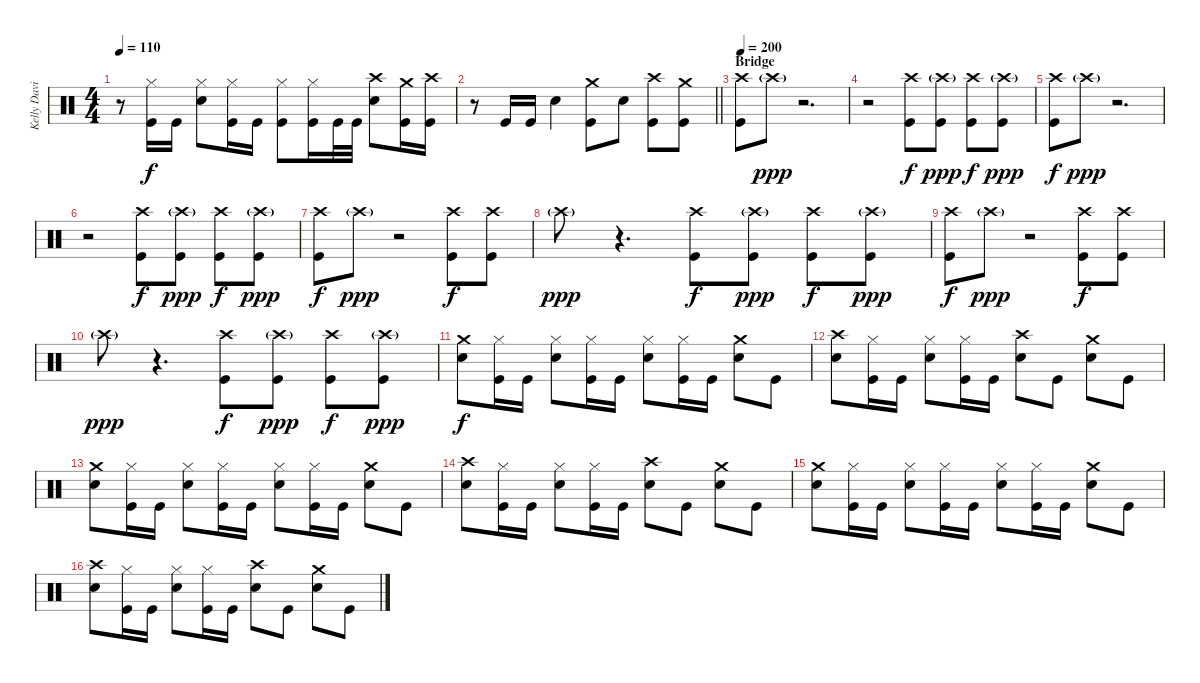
\track ("Kelly David Smith" "Kelly Davi") {instrument percussion}
\staff {score}
\articulation defaults
\ts (4 4)
\tempo 110
\clef neutral
\ks c
r.8{dy f} ("Hi-Hat (closed)" "Kick (hit)").16 "Kick (hit)".16 ("Hi-Hat (closed)" "Snare (hit) 2").8 ("Hi-Hat (closed)" "Kick (hit)").16 "Kick (hit)".16 ("Hi-Hat (closed)" "Kick (hit)").8 ("Hi-Hat (closed)" "Kick (hit)").16 "Kick (hit)".32 "Kick (hit)".32 ("Crash high (hit)" "Snare (hit) 2").8 ("Crash medium (hit)" "Kick (hit)").16 ("Crash high (hit)" "Kick (hit)").16 |
\barLineRight lightlight
r.8 "Kick (hit)".16 "Kick (hit)".16 "Snare (hit) 2".4 ("Crash medium (hit)" "Kick (hit)").8 "Snare (hit) 2".8 ("Crash high (hit)" "Kick (hit)").8 ("Crash medium (hit)" "Kick (hit)").8 |
\section ("" "Bridge")
\tempo 200
("Crash high (hit)" "Kick (hit)").8 "Crash high (hit)"{g}.8{dy ppp} r.2{d} |
r.2 ("Crash high (hit)" "Kick (hit)").8{dy f} ("Crash high (hit)"{g} "Kick (hit)").8{dy ppp} ("Crash high (hit)" "Kick (hit)").8{dy f} ("Crash high (hit)"{g} "Kick (hit)").8{dy ppp} |
("Crash high (hit)" "Kick (hit)").8{dy f} "Crash high (hit)"{g}.8{dy ppp} r.2{d} |
r.2 ("Crash high (hit)" "Kick (hit)").8{dy f} ("Crash high (hit)"{g} "Kick (hit)").8{dy ppp} ("Crash high (hit)" "Kick (hit)").8{dy f} ("Crash high (hit)"{g} "Kick (hit)").8{dy ppp} |
("Crash high (hit)" "Kick (hit)").8{dy f} "Crash high (hit)"{g}.8{dy ppp} r.2 ("Crash high (hit)" "Kick (hit)").8{dy f} ("Crash high (hit)" "Kick (hit)").8 |
"Crash high (hit)"{g}.8{dy ppp} r.4{d} ("Crash high (hit)" "Kick (hit)").8{dy f} ("Crash high (hit)"{g} "Kick (hit)").8{dy ppp} ("Crash high (hit)" "Kick (hit)").8{dy f} ("Crash high (hit)"{g} "Kick (hit)").8{dy ppp} |
("Crash high (hit)" "Kick (hit)").8{dy f} "Crash high (hit)"{g}.8{dy ppp} r.2 ("Crash high (hit)" "Kick (hit)").8{dy f} ("Crash high (hit)" "Kick (hit)").8 |
"Crash high (hit)"{g}.8{dy ppp} r.4{d} ("Crash high (hit)" "Kick (hit)").8{dy f} ("Crash high (hit)"{g} "Kick (hit)").8{dy ppp} ("Crash high (hit)" "Kick (hit)").8{dy f} ("Crash high (hit)"{g} "Kick (hit)").8{dy ppp} |
("Crash medium (hit)" "Snare (hit) 2").8{dy f} ("Hi-Hat (closed)" "Kick (hit)").16 "Kick (hit)".16 ("Hi-Hat (closed)" "Snare (hit) 2").8 ("Hi-Hat (closed)" "Kick (hit)").16 "Kick (hit)".16 ("Hi-Hat (closed)" "Snare (hit) 2").8 ("Hi-Hat (closed)" "Kick (hit)").16 "Kick (hit)".16 ("Crash medium (hit)" "Snare (hit) 2").8 "Kick (hit)".8 |
("Crash high (hit)" "Snare (hit) 2").8 ("Hi-Hat (closed)" "Kick (hit)").16 "Kick (hit)".16 ("Hi-Hat (closed)" "Snare (hit) 2").8 ("Hi-Hat (closed)" "Kick (hit)").16 "Kick (hit)".16 ("Crash high (hit)" "Snare (hit) 2").8 "Kick (hit)".8 ("Crash medium (hit)" "Snare (hit) 2").8 "Kick (hit)".8 |
("Crash medium (hit)" "Snare (hit) 2").8 ("Hi-Hat (closed)" "Kick (hit)").16 "Kick (hit)".16 ("Hi-Hat (closed)" "Snare (hit) 2").8 ("Hi-Hat (closed)" "Kick (hit)").16 "Kick (hit)".16 ("Hi-Hat (closed)" "Snare (hit) 2").8 ("Hi-Hat (closed)" "Kick (hit)").16 "Kick (hit)".16 ("Crash medium (hit)" "Snare (hit) 2").8 "Kick (hit)".8 |
("Crash high (hit)" "Snare (hit) 2").8 ("Hi-Hat (closed)" "Kick (hit)").16 "Kick (hit)".16 ("Hi-Hat (closed)" "Snare (hit) 2").8 ("Hi-Hat (closed)" "Kick (hit)").16 "Kick (hit)".16 ("Crash high (hit)" "Snare (hit) 2").8 "Kick (hit)".8 ("Crash medium (hit)" "Snare (hit) 2").8 "Kick (hit)".8 |
("Crash medium (hit)" "Snare (hit) 2").8 ("Hi-Hat (closed)" "Kick (hit)").16 "Kick (hit)".16 ("Hi-Hat (closed)" "Snare (hit) 2").8 ("Hi-Hat (closed)" "Kick (hit)").16 "Kick (hit)".16 ("Hi-Hat (closed)" "Snare (hit) 2").8 ("Hi-Hat (closed)" "Kick (hit)").16 "Kick (hit)".16 ("Crash medium (hit)" "Snare (hit) 2").8 "Kick (hit)".8 |
("Crash high (hit)" "Snare (hit) 2").8 ("Hi-Hat (closed)" "Kick (hit)").16 "Kick (hit)".16 ("Hi-Hat (closed)" "Snare (hit) 2").8 ("Hi-Hat (closed)" "Kick (hit)").16 "Kick (hit)".16 ("Crash high (hit)" "Snare (hit) 2").8 "Kick (hit)".8 ("Crash medium (hit)" "Snare (hit) 2").8 "Kick (hit)".8
